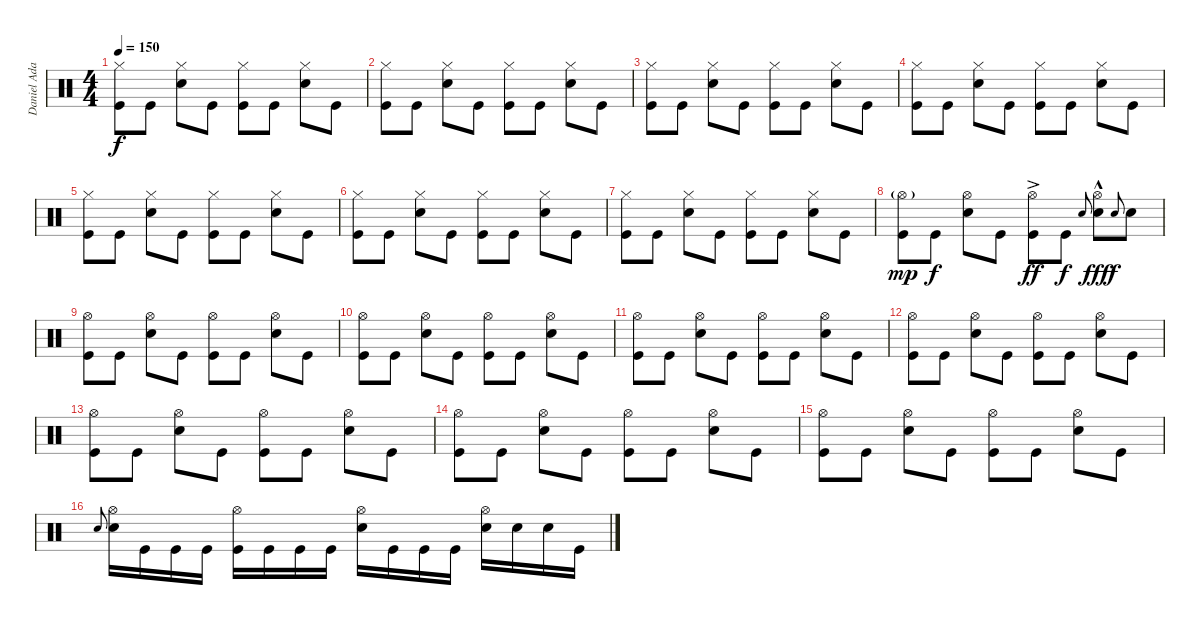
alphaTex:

\track ("Daniel Adair" "Daniel Ada") {instrument percussion}
\staff {score}
\articulation defaults
\ts (4 4)
\tempo 150
\clef neutral
\ks c
("Kick (hit)" "Hi-Hat (closed)").8{dy f} "Kick (hit)".8 ("Electric Snare (hit)" "Hi-Hat (closed)").8 "Kick (hit)".8 ("Kick (hit)" "Hi-Hat (closed)").8 "Kick (hit)".8 ("Electric Snare (hit)" "Hi-Hat (closed)").8 "Kick (hit)".8 |
("Kick (hit)" "Hi-Hat (closed)").8 "Kick (hit)".8 ("Electric Snare (hit)" "Hi-Hat (closed)").8 "Kick (hit)".8 ("Kick (hit)" "Hi-Hat (closed)").8 "Kick (hit)".8 ("Electric Snare (hit)" "Hi-Hat (closed)").8 "Kick (hit)".8 |
("Kick (hit)" "Hi-Hat (closed)").8 "Kick (hit)".8 ("Electric Snare (hit)" "Hi-Hat (closed)").8 "Kick (hit)".8 ("Kick (hit)" "Hi-Hat (closed)").8 "Kick (hit)".8 ("Electric Snare (hit)" "Hi-Hat (closed)").8 "Kick (hit)".8 |
("Kick (hit)" "Hi-Hat (closed)").8 "Kick (hit)".8 ("Electric Snare (hit)" "Hi-Hat (closed)").8 "Kick (hit)".8 ("Kick (hit)" "Hi-Hat (closed)").8 "Kick (hit)".8 ("Electric Snare (hit)" "Hi-Hat (closed)").8 "Kick (hit)".8 |
("Kick (hit)" "Hi-Hat (closed)").8 "Kick (hit)".8 ("Electric Snare (hit)" "Hi-Hat (closed)").8 "Kick (hit)".8 ("Kick (hit)" "Hi-Hat (closed)").8 "Kick (hit)".8 ("Electric Snare (hit)" "Hi-Hat (closed)").8 "Kick (hit)".8 |
("Kick (hit)" "Hi-Hat (closed)").8 "Kick (hit)".8 ("Electric Snare (hit)" "Hi-Hat (closed)").8 "Kick (hit)".8 ("Kick (hit)" "Hi-Hat (closed)").8 "Kick (hit)".8 ("Electric Snare (hit)" "Hi-Hat (closed)").8 "Kick (hit)".8 |
("Kick (hit)" "Hi-Hat (closed)").8 "Kick (hit)".8 ("Electric Snare (hit)" "Hi-Hat (closed)").8 "Kick (hit)".8 ("Kick (hit)" "Hi-Hat (closed)").8 "Kick (hit)".8 ("Electric Snare (hit)" "Hi-Hat (closed)").8 "Kick (hit)".8 |
("Kick (hit)" "Hi-Hat (open)"{g}).8{dy mp} "Kick (hit)".8{dy f} ("Electric Snare (hit)" "Hi-Hat (open)").8 "Kick (hit)".8 ("Kick (hit)" "Hi-Hat (open)"{ac}).8{dy ff} "Kick (hit)".8{dy f} "Electric Snare (hit)".8{gr onbeat} ("Electric Snare (hit)" "Hi-Hat (open)"{hac}).8{dy fff} "Electric Snare (hit)".8{gr onbeat dy f} "Electric Snare (hit)".8 |
("Kick (hit)" "Hi-Hat (open)").8 "Kick (hit)".8 ("Electric Snare (hit)" "Hi-Hat (open)").8 "Kick (hit)".8 ("Kick (hit)" "Hi-Hat (open)").8 "Kick (hit)".8 ("Electric Snare (hit)" "Hi-Hat (open)").8 "Kick (hit)".8 |
("Kick (hit)" "Hi-Hat (open)").8 "Kick (hit)".8 ("Electric Snare (hit)" "Hi-Hat (open)").8 "Kick (hit)".8 ("Kick (hit)" "Hi-Hat (open)").8 "Kick (hit)".8 ("Electric Snare (hit)" "Hi-Hat (open)").8 "Kick (hit)".8 |
("Kick (hit)" "Hi-Hat (open)").8 "Kick (hit)".8 ("Electric Snare (hit)" "Hi-Hat (open)").8 "Kick (hit)".8 ("Kick (hit)" "Hi-Hat (open)").8 "Kick (hit)".8 ("Electric Snare (hit)" "Hi-Hat (open)").8 "Kick (hit)".8 |
("Kick (hit)" "Hi-Hat (open)").8 "Kick (hit)".8 ("Electric Snare (hit)" "Hi-Hat (open)").8 "Kick (hit)".8 ("Kick (hit)" "Hi-Hat (open)").8 "Kick (hit)".8 ("Electric Snare (hit)" "Hi-Hat (open)").8 "Kick (hit)".8 |
("Kick (hit)" "Hi-Hat (open)").8 "Kick (hit)".8 ("Electric Snare (hit)" "Hi-Hat (open)").8 "Kick (hit)".8 ("Kick (hit)" "Hi-Hat (open)").8 "Kick (hit)".8 ("Electric Snare (hit)" "Hi-Hat (open)").8 "Kick (hit)".8 |
("Kick (hit)" "Hi-Hat (open)").8 "Kick (hit)".8 ("Electric Snare (hit)" "Hi-Hat (open)").8 "Kick (hit)".8 ("Kick (hit)" "Hi-Hat (open)").8 "Kick (hit)".8 ("Electric Snare (hit)" "Hi-Hat (open)").8 "Kick (hit)".8 |
("Kick (hit)" "Hi-Hat (open)").8 "Kick (hit)".8 ("Electric Snare (hit)" "Hi-Hat (open)").8 "Kick (hit)".8 ("Kick (hit)" "Hi-Hat (open)").8 "Kick (hit)".8 ("Electric Snare (hit)" "Hi-Hat (open)").8 "Kick (hit)".8 |
"Electric Snare (hit)".8{gr onbeat} ("Electric Snare (hit)" "Hi-Hat (open)").16 "Kick (hit)".16 "Kick (hit)".16 "Kick (hit)".16 ("Kick (hit)" "Hi-Hat (open)").16 "Kick (hit)".16 "Kick (hit)".16 "Kick (hit)".16 ("Electric Snare (hit)" "Hi-Hat (open)").16 "Kick (hit)".16 "Kick (hit)".16 "Kick (hit)".16 ("Electric Snare (hit)" "Hi-Hat (open)").16 "Electric Snare (hit)".16 "Electric Snare (hit)".16 "Kick (hit)".16
